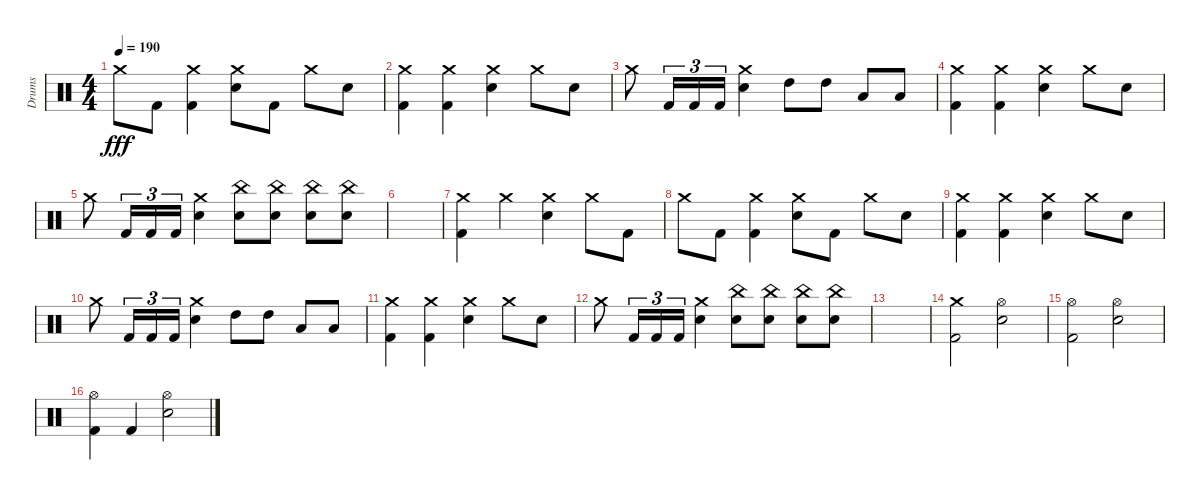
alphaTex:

\track ("Drums" "Drums") {instrument percussion}
\staff {score}
\articulation defaults
\ts (4 4)
\tempo 190
\clef neutral
\ks c "Crash medium (hit)".8{dy fff} "Kick (hit) 2".8
("Crash medium (hit)" "Kick (hit) 2").4 ("Electric Snare (hit)" "Crash medium (hit)").8 "Kick (hit) 2".8 "Crash medium (hit)".8 "Electric Snare (hit)".8 |
("Kick (hit) 2" "Crash medium (hit)").4 ("Kick (hit) 2" "Crash medium (hit)").4 ("Electric Snare (hit)" "Crash medium (hit)").4 "Crash medium (hit)".8 "Electric Snare (hit)".8 |
"Crash medium (hit)".8 "Kick (hit) 2".16{tu (3 2)} "Kick (hit) 2".16{tu (3 2)} "Kick (hit) 2".16{tu (3 2)} ("Electric Snare (hit)" "Crash medium (hit)").4 "High Tom (hit)".8 "High Tom (hit)".8 "Low Tom (hit)".8 "Low Tom (hit)".8 |
("Kick (hit) 2" "Crash medium (hit)").4 ("Kick (hit) 2" "Crash medium (hit)").4 ("Electric Snare (hit)" "Crash medium (hit)").4 "Crash medium (hit)".8 "Electric Snare (hit)".8 |
"Crash medium (hit)".8 "Kick (hit) 2".16{tu (3 2)} "Kick (hit) 2".16{tu (3 2)} "Kick (hit) 2".16{tu (3 2)} ("Electric Snare (hit)" "Crash medium (hit)").4 ("Electric Snare (hit)" "China (hit)").8 ("Electric Snare (hit)" "China (hit)").8 ("Electric Snare (hit)" "China (hit)").8 ("Electric Snare (hit)" "China (hit)").8 |
|
("Kick (hit) 2" "Crash medium (hit)").4 "Crash medium (hit)".4 ("Crash medium (hit)" "Electric Snare (hit)").4 "Crash medium (hit)".8 "Kick (hit) 2".8 |
"Crash medium (hit)".8 "Kick (hit) 2".8 ("Crash medium (hit)" "Kick (hit) 2").4 ("Electric Snare (hit)" "Crash medium (hit)").8 "Kick (hit) 2".8 "Crash medium (hit)".8 "Electric Snare (hit)".8 |
("Kick (hit) 2" "Crash medium (hit)").4 ("Kick (hit) 2" "Crash medium (hit)").4 ("Electric Snare (hit)" "Crash medium (hit)").4 "Crash medium (hit)".8 "Electric Snare (hit)".8 |
"Crash medium (hit)".8 "Kick (hit) 2".16{tu (3 2)} "Kick (hit) 2".16{tu (3 2)} "Kick (hit) 2".16{tu (3 2)} ("Electric Snare (hit)" "Crash medium (hit)").4 "High Tom (hit)".8 "High Tom (hit)".8 "Low Tom (hit)".8 "Low Tom (hit)".8 |
("Kick (hit) 2" "Crash medium (hit)").4 ("Kick (hit) 2" "Crash medium (hit)").4 ("Electric Snare (hit)" "Crash medium (hit)").4 "Crash medium (hit)".8 "Electric Snare (hit)".8 |
"Crash medium (hit)".8 "Kick (hit) 2".16{tu (3 2)} "Kick (hit) 2".16{tu (3 2)} "Kick (hit) 2".16{tu (3 2)} ("Electric Snare (hit)" "Crash medium (hit)").4 ("Electric Snare (hit)" "China (hit)").8 ("Electric Snare (hit)" "China (hit)").8 ("Electric Snare (hit)" "China (hit)").8 ("Electric Snare (hit)" "China (hit)").8 |
|
("Kick (hit) 2" "Crash medium (hit)").2 ("Hi-Hat (open)" "Electric Snare (hit)").2 |
("Kick (hit) 2" "Hi-Hat (open)").2 ("Electric Snare (hit)" "Hi-Hat (open)").2 |
("Kick (hit) 2" "Hi-Hat (open)").4 "Kick (hit) 2".4 ("Electric Snare (hit)" "Hi-Hat (open)").2
